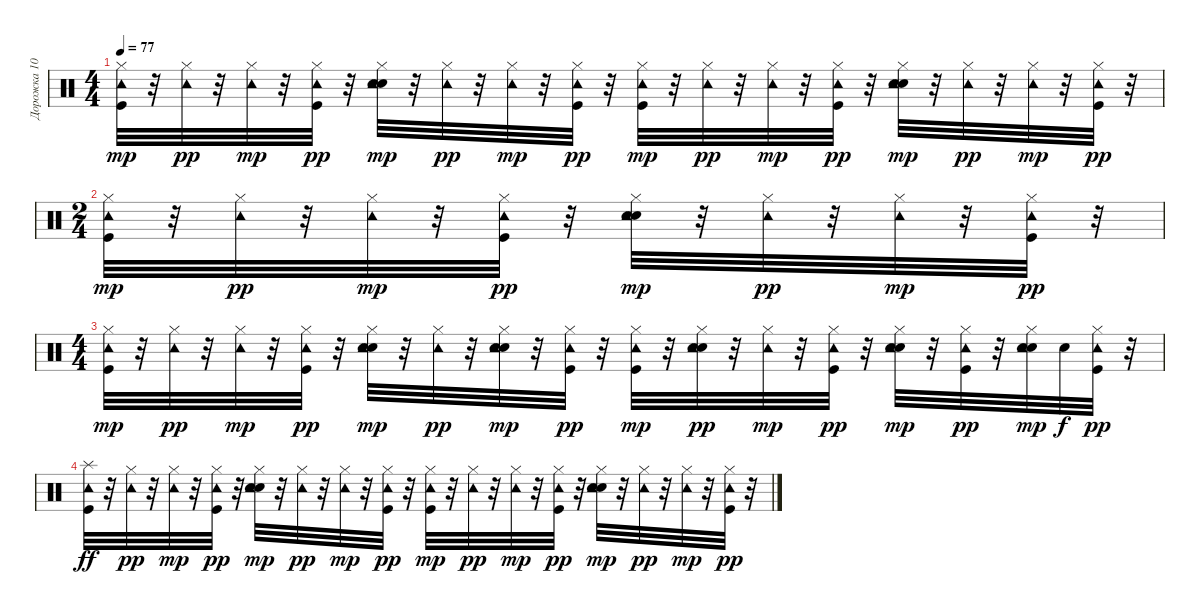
\track ("Дорожка 10" "Дорожка 10") {instrument percussion}
\staff {score}
\articulation defaults
\ts (4 4)
\tempo 77
\clef neutral
\ks c
("Kick (hit)" "Hi-Hat (closed)" "Tambourine (hit)").32{dy mp} r.32 ("Hi-Hat (closed)" "Tambourine (hit)").32{dy pp} r.32 ("Hi-Hat (closed)" "Tambourine (hit)").32{dy mp} r.32 ("Kick (hit)" "Hi-Hat (closed)" "Tambourine (hit)").32{dy pp} r.32 ("Snare (hit) 2" "Hand Clap (hit)" "Hi-Hat (closed)" "Tambourine (hit)").32{dy mp} r.32 ("Hi-Hat (closed)" "Tambourine (hit)").32{dy pp} r.32 ("Hi-Hat (closed)" "Tambourine (hit)").32{dy mp} r.32 ("Kick (hit)" "Hi-Hat (closed)" "Tambourine (hit)").32{dy pp} r.32 ("Kick (hit)" "Hi-Hat (closed)" "Tambourine (hit)").32{dy mp} r.32 ("Hi-Hat (closed)" "Tambourine (hit)").32{dy pp} r.32 ("Hi-Hat (closed)" "Tambourine (hit)").32{dy mp} r.32 ("Kick (hit)" "Hi-Hat (closed)" "Tambourine (hit)").32{dy pp} r.32 ("Snare (hit) 2" "Hand Clap (hit)" "Hi-Hat (closed)" "Tambourine (hit)").32{dy mp} r.32 ("Hi-Hat (closed)" "Tambourine (hit)").32{dy pp} r.32 ("Hi-Hat (closed)" "Tambourine (hit)").32{dy mp} r.32 ("Kick (hit)" "Hi-Hat (closed)" "Tambourine (hit)").32{dy pp} r.32 |
\ts (2 4)
("Kick (hit)" "Hi-Hat (closed)" "Tambourine (hit)").32{dy mp} r.32 ("Hi-Hat (closed)" "Tambourine (hit)").32{dy pp} r.32 ("Hi-Hat (closed)" "Tambourine (hit)").32{dy mp} r.32 ("Kick (hit)" "Hi-Hat (closed)" "Tambourine (hit)").32{dy pp} r.32 ("Snare (hit) 2" "Hand Clap (hit)" "Hi-Hat (closed)" "Tambourine (hit)").32{dy mp} r.32 ("Hi-Hat (closed)" "Tambourine (hit)").32{dy pp} r.32 ("Hi-Hat (closed)" "Tambourine (hit)").32{dy mp} r.32 ("Kick (hit)" "Hi-Hat (closed)" "Tambourine (hit)").32{dy pp} r.32 |
\ts (4 4)
("Kick (hit)" "Hi-Hat (closed)" "Tambourine (hit)").32{dy mp} r.32 ("Hi-Hat (closed)" "Tambourine (hit)").32{dy pp} r.32 ("Hi-Hat (closed)" "Tambourine (hit)").32{dy mp} r.32 ("Kick (hit)" "Hi-Hat (closed)" "Tambourine (hit)").32{dy pp} r.32 ("Snare (hit) 2" "Hand Clap (hit)" "Hi-Hat (closed)" "Tambourine (hit)").32{dy mp} r.32 ("Hi-Hat (closed)" "Tambourine (hit)").32{dy pp} r.32 ("Snare (hit) 2" "Hand Clap (hit)" "Hi-Hat (closed)" "Tambourine (hit)").32{dy mp} r.32 ("Kick (hit)" "Hi-Hat (closed)" "Tambourine (hit)").32{dy pp} r.32 ("Kick (hit)" "Hi-Hat (closed)" "Tambourine (hit)").32{dy mp} r.32 ("Snare (hit) 2" "Hand Clap (hit)" "Hi-Hat (closed)" "Tambourine (hit)").32{dy pp} r.32 ("Hi-Hat (closed)" "Tambourine (hit)").32{dy mp} r.32 ("Kick (hit)" "Hi-Hat (closed)" "Tambourine (hit)").32{dy pp} r.32 ("Snare (hit) 2" "Hand Clap (hit)" "Hi-Hat (closed)" "Tambourine (hit)").32{dy mp} r.32 ("Kick (hit)" "Hi-Hat (closed)" "Tambourine (hit)").32{dy pp} r.32 ("Snare (hit) 2" "Hand Clap (hit)" "Hi-Hat (closed)" "Tambourine (hit)").32{dy mp} "Snare (hit) 2".32{dy f} ("Kick (hit)" "Hi-Hat (closed)" "Tambourine (hit)").32{dy pp} r.32 |
("Kick (hit)" "Tambourine (hit)" "Splash (hit)").32{dy ff} r.32 ("Hi-Hat (closed)" "Tambourine (hit)").32{dy pp} r.32 ("Hi-Hat (closed)" "Tambourine (hit)").32{dy mp} r.32 ("Kick (hit)" "Hi-Hat (closed)" "Tambourine (hit)").32{dy pp} r.32 ("Snare (hit) 2" "Hand Clap (hit)" "Hi-Hat (closed)" "Tambourine (hit)").32{dy mp} r.32 ("Hi-Hat (closed)" "Tambourine (hit)").32{dy pp} r.32 ("Hi-Hat (closed)" "Tambourine (hit)").32{dy mp} r.32 ("Kick (hit)" "Hi-Hat (closed)" "Tambourine (hit)").32{dy pp} r.32 ("Kick (hit)" "Hi-Hat (closed)" "Tambourine (hit)").32{dy mp} r.32 ("Hi-Hat (closed)" "Tambourine (hit)").32{dy pp} r.32 ("Hi-Hat (closed)" "Tambourine (hit)").32{dy mp} r.32 ("Kick (hit)" "Hi-Hat (closed)" "Tambourine (hit)").32{dy pp} r.32 ("Snare (hit) 2" "Hand Clap (hit)" "Hi-Hat (closed)" "Tambourine (hit)").32{dy mp} r.32 ("Hi-Hat (closed)" "Tambourine (hit)").32{dy pp} r.32 ("Hi-Hat (closed)" "Tambourine (hit)").32{dy mp} r.32 ("Kick (hit)" "Hi-Hat (closed)" "Tambourine (hit)").32{dy pp} r.32
